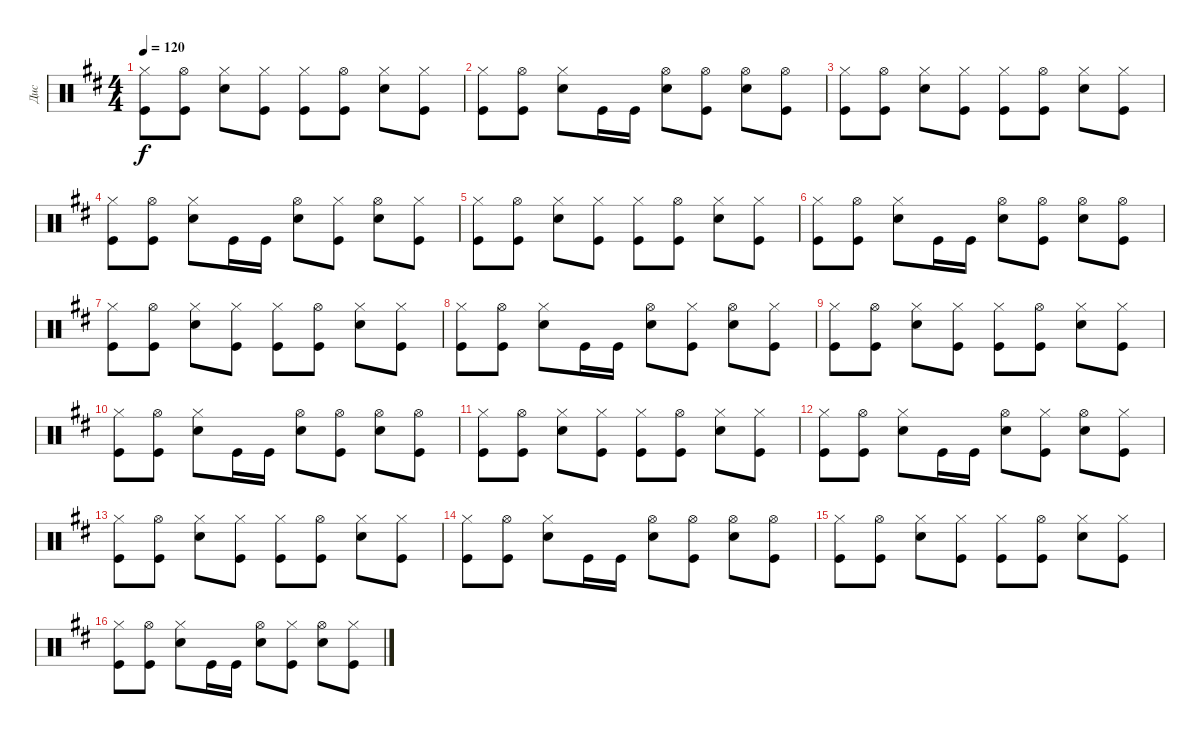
\track ("Дис" "Дис") {instrument percussion}
\staff {score}
\articulation defaults
\ts (4 4)
\tempo 120
\clef neutral
\ks bminor
("Hi-Hat (closed)" "Kick (hit)").8{dy f} ("Hi-Hat (open)" "Kick (hit)").8 ("Hi-Hat (closed)" "Electric Snare (hit)").8 ("Hi-Hat (closed)" "Kick (hit)").8 ("Hi-Hat (closed)" "Kick (hit)").8 ("Hi-Hat (open)" "Kick (hit)").8 ("Hi-Hat (closed)" "Electric Snare (hit)").8 ("Hi-Hat (closed)" "Kick (hit)").8 |
("Hi-Hat (closed)" "Kick (hit)").8 ("Hi-Hat (open)" "Kick (hit)").8 ("Hi-Hat (closed)" "Electric Snare (hit)").8 "Kick (hit)".16 "Kick (hit)".16 ("Hi-Hat (open)" "Electric Snare (hit)").8 ("Hi-Hat (open)" "Kick (hit)").8 ("Hi-Hat (open)" "Electric Snare (hit)").8 ("Hi-Hat (open)" "Kick (hit)").8 |
("Hi-Hat (closed)" "Kick (hit)").8 ("Hi-Hat (open)" "Kick (hit)").8 ("Hi-Hat (closed)" "Electric Snare (hit)").8 ("Hi-Hat (closed)" "Kick (hit)").8 ("Hi-Hat (closed)" "Kick (hit)").8 ("Hi-Hat (open)" "Kick (hit)").8 ("Hi-Hat (closed)" "Electric Snare (hit)").8 ("Hi-Hat (closed)" "Kick (hit)").8 |
("Hi-Hat (closed)" "Kick (hit)").8 ("Hi-Hat (open)" "Kick (hit)").8 ("Hi-Hat (closed)" "Electric Snare (hit)").8 "Kick (hit)".16 "Kick (hit)".16 ("Hi-Hat (open)" "Electric Snare (hit)").8 ("Hi-Hat (closed)" "Kick (hit)").8 ("Hi-Hat (open)" "Electric Snare (hit)").8 ("Hi-Hat (closed)" "Kick (hit)").8 |
("Hi-Hat (closed)" "Kick (hit)").8 ("Hi-Hat (open)" "Kick (hit)").8 ("Hi-Hat (closed)" "Electric Snare (hit)").8 ("Hi-Hat (closed)" "Kick (hit)").8 ("Hi-Hat (closed)" "Kick (hit)").8 ("Hi-Hat (open)" "Kick (hit)").8 ("Hi-Hat (closed)" "Electric Snare (hit)").8 ("Hi-Hat (closed)" "Kick (hit)").8 |
("Hi-Hat (closed)" "Kick (hit)").8 ("Hi-Hat (open)" "Kick (hit)").8 ("Hi-Hat (closed)" "Electric Snare (hit)").8 "Kick (hit)".16 "Kick (hit)".16 ("Hi-Hat (open)" "Electric Snare (hit)").8 ("Hi-Hat (open)" "Kick (hit)").8 ("Hi-Hat (open)" "Electric Snare (hit)").8 ("Hi-Hat (open)" "Kick (hit)").8 |
("Hi-Hat (closed)" "Kick (hit)").8 ("Hi-Hat (open)" "Kick (hit)").8 ("Hi-Hat (closed)" "Electric Snare (hit)").8 ("Hi-Hat (closed)" "Kick (hit)").8 ("Hi-Hat (closed)" "Kick (hit)").8 ("Hi-Hat (open)" "Kick (hit)").8 ("Hi-Hat (closed)" "Electric Snare (hit)").8 ("Hi-Hat (closed)" "Kick (hit)").8 |
("Hi-Hat (closed)" "Kick (hit)").8 ("Hi-Hat (open)" "Kick (hit)").8 ("Hi-Hat (closed)" "Electric Snare (hit)").8 "Kick (hit)".16 "Kick (hit)".16 ("Hi-Hat (open)" "Electric Snare (hit)").8 ("Hi-Hat (closed)" "Kick (hit)").8 ("Hi-Hat (open)" "Electric Snare (hit)").8 ("Hi-Hat (closed)" "Kick (hit)").8 |
("Hi-Hat (closed)" "Kick (hit)").8 ("Hi-Hat (open)" "Kick (hit)").8 ("Hi-Hat (closed)" "Electric Snare (hit)").8 ("Hi-Hat (closed)" "Kick (hit)").8 ("Hi-Hat (closed)" "Kick (hit)").8 ("Hi-Hat (open)" "Kick (hit)").8 ("Hi-Hat (closed)" "Electric Snare (hit)").8 ("Hi-Hat (closed)" "Kick (hit)").8 |
("Hi-Hat (closed)" "Kick (hit)").8 ("Hi-Hat (open)" "Kick (hit)").8 ("Hi-Hat (closed)" "Electric Snare (hit)").8 "Kick (hit)".16 "Kick (hit)".16 ("Hi-Hat (open)" "Electric Snare (hit)").8 ("Hi-Hat (open)" "Kick (hit)").8 ("Hi-Hat (open)" "Electric Snare (hit)").8 ("Hi-Hat (open)" "Kick (hit)").8 |
("Hi-Hat (closed)" "Kick (hit)").8 ("Hi-Hat (open)" "Kick (hit)").8 ("Hi-Hat (closed)" "Electric Snare (hit)").8 ("Hi-Hat (closed)" "Kick (hit)").8 ("Hi-Hat (closed)" "Kick (hit)").8 ("Hi-Hat (open)" "Kick (hit)").8 ("Hi-Hat (closed)" "Electric Snare (hit)").8 ("Hi-Hat (closed)" "Kick (hit)").8 |
("Hi-Hat (closed)" "Kick (hit)").8 ("Hi-Hat (open)" "Kick (hit)").8 ("Hi-Hat (closed)" "Electric Snare (hit)").8 "Kick (hit)".16 "Kick (hit)".16 ("Hi-Hat (open)" "Electric Snare (hit)").8 ("Hi-Hat (closed)" "Kick (hit)").8 ("Hi-Hat (open)" "Electric Snare (hit)").8 ("Hi-Hat (closed)" "Kick (hit)").8 |
("Hi-Hat (closed)" "Kick (hit)").8 ("Hi-Hat (open)" "Kick (hit)").8 ("Hi-Hat (closed)" "Electric Snare (hit)").8 ("Hi-Hat (closed)" "Kick (hit)").8 ("Hi-Hat (closed)" "Kick (hit)").8 ("Hi-Hat (open)" "Kick (hit)").8 ("Hi-Hat (closed)" "Electric Snare (hit)").8 ("Hi-Hat (closed)" "Kick (hit)").8 |
("Hi-Hat (closed)" "Kick (hit)").8 ("Hi-Hat (open)" "Kick (hit)").8 ("Hi-Hat (closed)" "Electric Snare (hit)").8 "Kick (hit)".16 "Kick (hit)".16 ("Hi-Hat (open)" "Electric Snare (hit)").8 ("Hi-Hat (open)" "Kick (hit)").8 ("Hi-Hat (open)" "Electric Snare (hit)").8 ("Hi-Hat (open)" "Kick (hit)").8 |
("Hi-Hat (closed)" "Kick (hit)").8 ("Hi-Hat (open)" "Kick (hit)").8 ("Hi-Hat (closed)" "Electric Snare (hit)").8 ("Hi-Hat (closed)" "Kick (hit)").8 ("Hi-Hat (closed)" "Kick (hit)").8 ("Hi-Hat (open)" "Kick (hit)").8 ("Hi-Hat (closed)" "Electric Snare (hit)").8 ("Hi-Hat (closed)" "Kick (hit)").8 |
("Hi-Hat (closed)" "Kick (hit)").8 ("Hi-Hat (open)" "Kick (hit)").8 ("Hi-Hat (closed)" "Electric Snare (hit)").8 "Kick (hit)".16 "Kick (hit)".16 ("Hi-Hat (open)" "Electric Snare (hit)").8 ("Hi-Hat (closed)" "Kick (hit)").8 ("Hi-Hat (open)" "Electric Snare (hit)").8 ("Hi-Hat (closed)" "Kick (hit)").8
